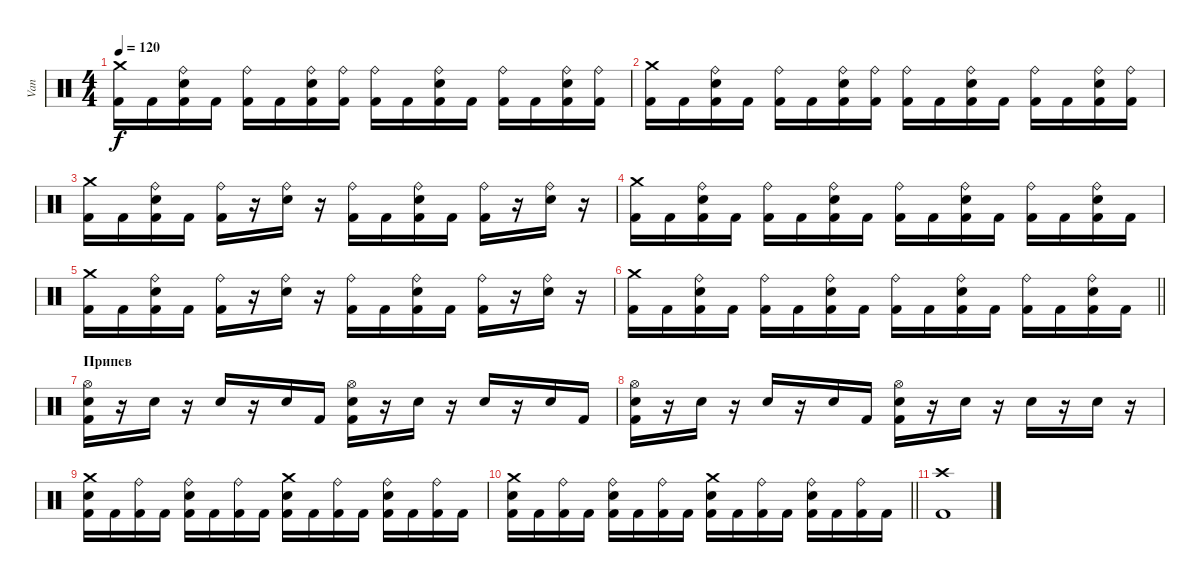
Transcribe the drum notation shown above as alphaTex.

\track ("Van" "Van") {instrument percussion}
\staff {score}
\articulation defaults
\ts (4 4)
\tempo 120
\clef neutral
\ks c
("Crash medium (hit)" "Kick (hit) 2").16{dy f} "Kick (hit) 2".16 ("Ride (bell)" "Electric Snare (hit)" "Kick (hit) 2").16 "Kick (hit) 2".16 ("Ride (bell)" "Kick (hit) 2").16 "Kick (hit) 2".16 ("Ride (bell)" "Electric Snare (hit)" "Kick (hit) 2").16 ("Ride (bell)" "Kick (hit) 2").16 ("Ride (bell)" "Kick (hit) 2").16 "Kick (hit) 2".16 ("Ride (bell)" "Electric Snare (hit)" "Kick (hit) 2").16 "Kick (hit) 2".16 ("Ride (bell)" "Kick (hit) 2").16 "Kick (hit) 2".16 ("Ride (bell)" "Electric Snare (hit)" "Kick (hit) 2").16 ("Ride (bell)" "Kick (hit) 2").16 |
("Crash medium (hit)" "Kick (hit) 2").16 "Kick (hit) 2".16 ("Ride (bell)" "Electric Snare (hit)" "Kick (hit) 2").16 "Kick (hit) 2".16 ("Ride (bell)" "Kick (hit) 2").16 "Kick (hit) 2".16 ("Ride (bell)" "Electric Snare (hit)" "Kick (hit) 2").16 ("Ride (bell)" "Kick (hit) 2").16 ("Ride (bell)" "Kick (hit) 2").16 "Kick (hit) 2".16 ("Ride (bell)" "Electric Snare (hit)" "Kick (hit) 2").16 "Kick (hit) 2".16 ("Ride (bell)" "Kick (hit) 2").16 "Kick (hit) 2".16 ("Ride (bell)" "Electric Snare (hit)" "Kick (hit) 2").16 ("Ride (bell)" "Kick (hit) 2").16 |
("Crash medium (hit)" "Kick (hit) 2").16 "Kick (hit) 2".16 ("Ride (bell)" "Electric Snare (hit)" "Kick (hit) 2").16 "Kick (hit) 2".16 ("Ride (bell)" "Kick (hit) 2").16 r.16 ("Ride (bell)" "Electric Snare (hit)").16 r.16 ("Ride (bell)" "Kick (hit) 2").16 "Kick (hit) 2".16 ("Ride (bell)" "Electric Snare (hit)" "Kick (hit) 2").16 "Kick (hit) 2".16 ("Ride (bell)" "Kick (hit) 2").16 r.16 ("Ride (bell)" "Electric Snare (hit)").16 r.16 |
("Crash medium (hit)" "Kick (hit) 2").16 "Kick (hit) 2".16 ("Ride (bell)" "Electric Snare (hit)" "Kick (hit) 2").16 "Kick (hit) 2".16 ("Ride (bell)" "Kick (hit) 2").16 "Kick (hit) 2".16 ("Ride (bell)" "Electric Snare (hit)" "Kick (hit) 2").16 "Kick (hit) 2".16 ("Ride (bell)" "Kick (hit) 2").16 "Kick (hit) 2".16 ("Ride (bell)" "Electric Snare (hit)" "Kick (hit) 2").16 "Kick (hit) 2".16 ("Ride (bell)" "Kick (hit) 2").16 "Kick (hit) 2".16 ("Ride (bell)" "Electric Snare (hit)" "Kick (hit) 2").16 "Kick (hit) 2".16 |
("Crash medium (hit)" "Kick (hit) 2").16 "Kick (hit) 2".16 ("Ride (bell)" "Electric Snare (hit)" "Kick (hit) 2").16 "Kick (hit) 2".16 ("Ride (bell)" "Kick (hit) 2").16 r.16 ("Ride (bell)" "Electric Snare (hit)").16 r.16 ("Ride (bell)" "Kick (hit) 2").16 "Kick (hit) 2".16 ("Ride (bell)" "Electric Snare (hit)" "Kick (hit) 2").16 "Kick (hit) 2".16 ("Ride (bell)" "Kick (hit) 2").16 r.16 ("Ride (bell)" "Electric Snare (hit)").16 r.16 |
\barLineRight lightlight
("Crash medium (hit)" "Kick (hit) 2").16 "Kick (hit) 2".16 ("Ride (bell)" "Electric Snare (hit)" "Kick (hit) 2").16 "Kick (hit) 2".16 ("Ride (bell)" "Kick (hit) 2").16 "Kick (hit) 2".16 ("Ride (bell)" "Electric Snare (hit)" "Kick (hit) 2").16 "Kick (hit) 2".16 ("Ride (bell)" "Kick (hit) 2").16 "Kick (hit) 2".16 ("Ride (bell)" "Electric Snare (hit)" "Kick (hit) 2").16 "Kick (hit) 2".16 ("Ride (bell)" "Kick (hit) 2").16 "Kick (hit) 2".16 ("Ride (bell)" "Electric Snare (hit)" "Kick (hit) 2").16 "Kick (hit) 2".16 |
\section ("" "Припев")
("Hi-Hat (open)" "Electric Snare (hit)" "Kick (hit) 2").16 r.16 "Electric Snare (hit)".16 r.16 "Electric Snare (hit)".16 r.16 "Electric Snare (hit)".16 "Kick (hit) 2".16 ("Hi-Hat (open)" "Electric Snare (hit)" "Kick (hit) 2").16 r.16 "Electric Snare (hit)".16 r.16 "Electric Snare (hit)".16 r.16 "Electric Snare (hit)".16 "Kick (hit) 2".16 |
("Hi-Hat (open)" "Electric Snare (hit)" "Kick (hit) 2").16 r.16 "Electric Snare (hit)".16 r.16 "Electric Snare (hit)".16 r.16 "Electric Snare (hit)".16 "Kick (hit) 2".16 ("Hi-Hat (open)" "Electric Snare (hit)" "Kick (hit) 2").16 r.16 "Electric Snare (hit)".16 r.16 "Electric Snare (hit)".16 r.16 "Electric Snare (hit)".16 r.16 |
("Crash medium (hit)" "Electric Snare (hit)" "Kick (hit) 2").16 "Kick (hit) 2".16 ("Ride (bell)" "Kick (hit) 2").16 "Kick (hit) 2".16 ("Ride (bell)" "Electric Snare (hit)" "Kick (hit) 2").16 "Kick (hit) 2".16 ("Ride (bell)" "Kick (hit) 2").16 "Kick (hit) 2".16 ("Crash medium (hit)" "Electric Snare (hit)" "Kick (hit) 2").16 "Kick (hit) 2".16 ("Ride (bell)" "Kick (hit) 2").16 "Kick (hit) 2".16 ("Ride (bell)" "Electric Snare (hit)" "Kick (hit) 2").16 "Kick (hit) 2".16 ("Ride (bell)" "Kick (hit) 2").16 "Kick (hit) 2".16 |
\barLineRight lightlight
("Crash medium (hit)" "Electric Snare (hit)" "Kick (hit) 2").16 "Kick (hit) 2".16 ("Ride (bell)" "Kick (hit) 2").16 "Kick (hit) 2".16 ("Ride (bell)" "Electric Snare (hit)" "Kick (hit) 2").16 "Kick (hit) 2".16 ("Ride (bell)" "Kick (hit) 2").16 "Kick (hit) 2".16 ("Crash medium (hit)" "Electric Snare (hit)" "Kick (hit) 2").16 "Kick (hit) 2".16 ("Ride (bell)" "Kick (hit) 2").16 "Kick (hit) 2".16 ("Ride (bell)" "Electric Snare (hit)" "Kick (hit) 2").16 "Kick (hit) 2".16 ("Ride (bell)" "Kick (hit) 2").16 "Kick (hit) 2".16 |
("Crash high (hit)" "Kick (hit) 2").1
